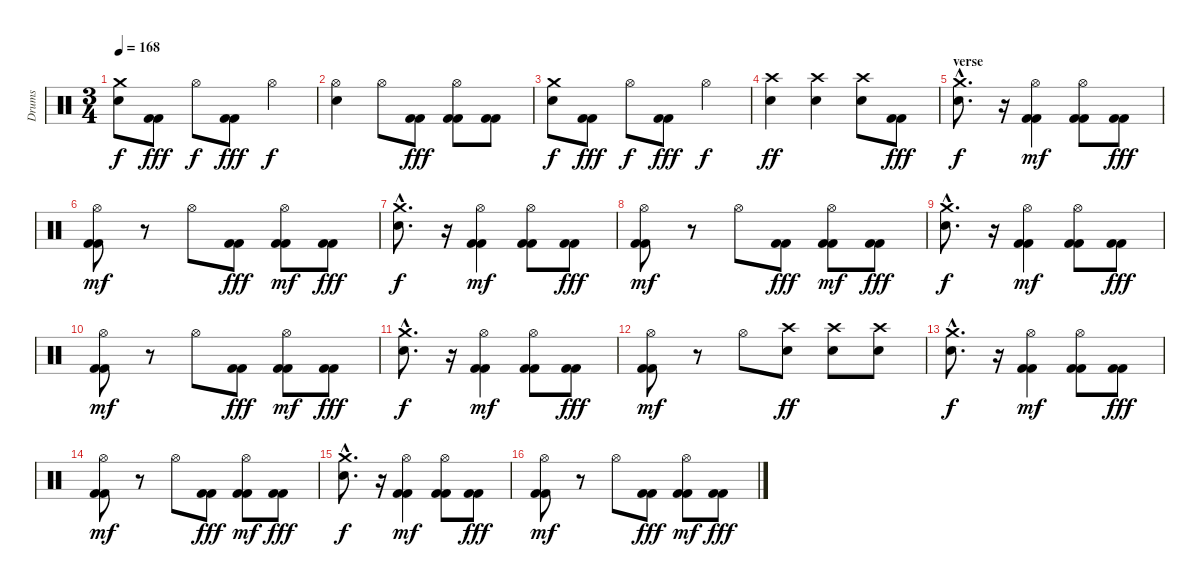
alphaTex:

\track ("Drums" "Drums") {instrument percussion}
\staff {score}
\articulation defaults
\ts (3 4)
\tempo 168
\clef neutral
\ks c
("Crash medium (hit)" "Electric Snare (hit)").8{dy f} ("Kick (hit) 2" "Kick (hit) 2").8{dy fff} "Hi-Hat (open)".8{dy f} ("Kick (hit) 2" "Kick (hit) 2").8{dy fff} "Hi-Hat (open)".4{dy f} |
("Electric Snare (hit)" "Hi-Hat (open)").4 "Hi-Hat (open)".8 ("Kick (hit) 2" "Kick (hit) 2").8{dy fff} ("Hi-Hat (open)" "Kick (hit) 2" "Kick (hit) 2").8 ("Kick (hit) 2" "Kick (hit) 2").8 |
("Crash medium (hit)" "Electric Snare (hit)").8{dy f} ("Kick (hit) 2" "Kick (hit) 2").8{dy fff} "Hi-Hat (open)".8{dy f} ("Kick (hit) 2" "Kick (hit) 2").8{dy fff} "Hi-Hat (open)".4{dy f} |
("Electric Snare (hit)" "Crash high (hit)").4{dy ff} ("Electric Snare (hit)" "Crash high (hit)").4 ("Electric Snare (hit)" "Crash high (hit)").8 ("Kick (hit) 2" "Kick (hit) 2").8{dy fff} |
\section ("" "verse")
("Crash medium (hit)"{hac} "Electric Snare (hit)"{hac}).8{d dy f} r.16 ("Kick (hit) 2" "Kick (hit) 2" "Hi-Hat (open)").4{dy mf} ("Kick (hit) 2" "Kick (hit) 2" "Hi-Hat (open)").8 ("Kick (hit) 2" "Kick (hit) 2").8{dy fff} |
("Kick (hit) 2" "Kick (hit) 2" "Hi-Hat (open)").8{dy mf} r.8 "Hi-Hat (open)".8 ("Kick (hit) 2" "Kick (hit) 2").8{dy fff} ("Kick (hit) 2" "Kick (hit) 2" "Hi-Hat (open)").8{dy mf} ("Kick (hit) 2" "Kick (hit) 2").8{dy fff} |
("Crash medium (hit)"{hac} "Electric Snare (hit)"{hac}).8{d dy f} r.16 ("Kick (hit) 2" "Kick (hit) 2" "Hi-Hat (open)").4{dy mf} ("Kick (hit) 2" "Kick (hit) 2" "Hi-Hat (open)").8 ("Kick (hit) 2" "Kick (hit) 2").8{dy fff} |
("Kick (hit) 2" "Kick (hit) 2" "Hi-Hat (open)").8{dy mf} r.8 "Hi-Hat (open)".8 ("Kick (hit) 2" "Kick (hit) 2").8{dy fff} ("Kick (hit) 2" "Kick (hit) 2" "Hi-Hat (open)").8{dy mf} ("Kick (hit) 2" "Kick (hit) 2").8{dy fff} |
("Crash medium (hit)"{hac} "Electric Snare (hit)"{hac}).8{d dy f} r.16 ("Kick (hit) 2" "Kick (hit) 2" "Hi-Hat (open)").4{dy mf} ("Kick (hit) 2" "Kick (hit) 2" "Hi-Hat (open)").8 ("Kick (hit) 2" "Kick (hit) 2").8{dy fff} |
("Kick (hit) 2" "Kick (hit) 2" "Hi-Hat (open)").8{dy mf} r.8 "Hi-Hat (open)".8 ("Kick (hit) 2" "Kick (hit) 2").8{dy fff} ("Kick (hit) 2" "Kick (hit) 2" "Hi-Hat (open)").8{dy mf} ("Kick (hit) 2" "Kick (hit) 2").8{dy fff} |
("Crash medium (hit)"{hac} "Electric Snare (hit)"{hac}).8{d dy f} r.16 ("Kick (hit) 2" "Kick (hit) 2" "Hi-Hat (open)").4{dy mf} ("Kick (hit) 2" "Kick (hit) 2" "Hi-Hat (open)").8 ("Kick (hit) 2" "Kick (hit) 2").8{dy fff} |
("Kick (hit) 2" "Kick (hit) 2" "Hi-Hat (open)").8{dy mf} r.8 "Hi-Hat (open)".8 ("Crash high (hit)" "Electric Snare (hit)").8{dy ff} ("Crash high (hit)" "Electric Snare (hit)").8 ("Crash high (hit)" "Electric Snare (hit)").8 |
("Crash medium (hit)"{hac} "Electric Snare (hit)"{hac}).8{d dy f} r.16 ("Kick (hit) 2" "Kick (hit) 2" "Hi-Hat (open)").4{dy mf} ("Kick (hit) 2" "Kick (hit) 2" "Hi-Hat (open)").8 ("Kick (hit) 2" "Kick (hit) 2").8{dy fff} |
("Kick (hit) 2" "Kick (hit) 2" "Hi-Hat (open)").8{dy mf} r.8 "Hi-Hat (open)".8 ("Kick (hit) 2" "Kick (hit) 2").8{dy fff} ("Kick (hit) 2" "Kick (hit) 2" "Hi-Hat (open)").8{dy mf} ("Kick (hit) 2" "Kick (hit) 2").8{dy fff} |
("Crash medium (hit)"{hac} "Electric Snare (hit)"{hac}).8{d dy f} r.16 ("Kick (hit) 2" "Kick (hit) 2" "Hi-Hat (open)").4{dy mf} ("Kick (hit) 2" "Kick (hit) 2" "Hi-Hat (open)").8 ("Kick (hit) 2" "Kick (hit) 2").8{dy fff} |
("Kick (hit) 2" "Kick (hit) 2" "Hi-Hat (open)").8{dy mf} r.8 "Hi-Hat (open)".8 ("Kick (hit) 2" "Kick (hit) 2").8{dy fff} ("Kick (hit) 2" "Kick (hit) 2" "Hi-Hat (open)").8{dy mf} ("Kick (hit) 2" "Kick (hit) 2").8{dy fff}
